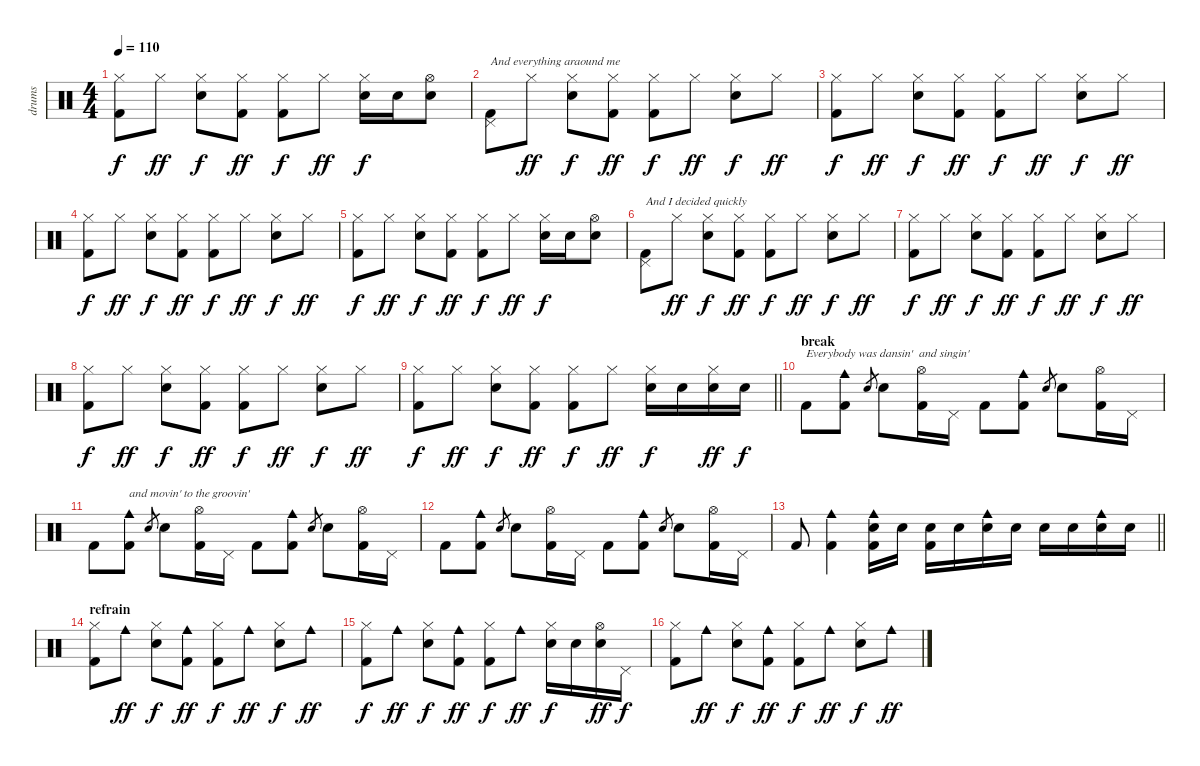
\track ("drums" "drums") {instrument percussion}
\staff {score}
\articulation defaults
\ts (4 4)
\tempo 110
\clef neutral
\ks aminor
("Hi-Hat (closed)" "Kick (hit) 2").8{dy f} "Hi-Hat (closed)".8{dy ff} ("Hi-Hat (closed)" "Snare (hit) 2").8{dy f} ("Hi-Hat (closed)" "Kick (hit) 2").8{dy ff} ("Hi-Hat (closed)" "Kick (hit) 2").8{dy f} "Hi-Hat (closed)".8{dy ff} ("Hi-Hat (closed)" "Snare (hit) 2").16{dy f} "Snare (hit) 2".16 ("Hi-Hat (open)" "Snare (hit) 2").8 |
("Pedal Hi-Hat (hit)" "Kick (hit) 2").8{txt "And everything araound me"} "Hi-Hat (closed)".8{dy ff} ("Hi-Hat (closed)" "Snare (hit) 2").8{dy f} ("Hi-Hat (closed)" "Kick (hit) 2").8{dy ff} ("Hi-Hat (closed)" "Kick (hit) 2").8{dy f} "Hi-Hat (closed)".8{dy ff} ("Hi-Hat (closed)" "Snare (hit) 2").8{dy f} "Hi-Hat (closed)".8{dy ff} |
("Hi-Hat (closed)" "Kick (hit) 2").8{dy f} "Hi-Hat (closed)".8{dy ff} ("Hi-Hat (closed)" "Snare (hit) 2").8{dy f} ("Hi-Hat (closed)" "Kick (hit) 2").8{dy ff} ("Hi-Hat (closed)" "Kick (hit) 2").8{dy f} "Hi-Hat (closed)".8{dy ff} ("Hi-Hat (closed)" "Snare (hit) 2").8{dy f} "Hi-Hat (closed)".8{dy ff} |
("Hi-Hat (closed)" "Kick (hit) 2").8{dy f} "Hi-Hat (closed)".8{dy ff} ("Hi-Hat (closed)" "Snare (hit) 2").8{dy f} ("Hi-Hat (closed)" "Kick (hit) 2").8{dy ff} ("Hi-Hat (closed)" "Kick (hit) 2").8{dy f} "Hi-Hat (closed)".8{dy ff} ("Hi-Hat (closed)" "Snare (hit) 2").8{dy f} "Hi-Hat (closed)".8{dy ff} |
("Hi-Hat (closed)" "Kick (hit) 2").8{dy f} "Hi-Hat (closed)".8{dy ff} ("Hi-Hat (closed)" "Snare (hit) 2").8{dy f} ("Hi-Hat (closed)" "Kick (hit) 2").8{dy ff} ("Hi-Hat (closed)" "Kick (hit) 2").8{dy f} "Hi-Hat (closed)".8{dy ff} ("Hi-Hat (closed)" "Snare (hit) 2").16{dy f} "Snare (hit) 2".16 ("Hi-Hat (open)" "Snare (hit) 2").8 |
("Pedal Hi-Hat (hit)" "Kick (hit) 2").8{txt "And I decided quickly"} "Hi-Hat (closed)".8{dy ff} ("Hi-Hat (closed)" "Snare (hit) 2").8{dy f} ("Hi-Hat (closed)" "Kick (hit) 2").8{dy ff} ("Hi-Hat (closed)" "Kick (hit) 2").8{dy f} "Hi-Hat (closed)".8{dy ff} ("Hi-Hat (closed)" "Snare (hit) 2").8{dy f} "Hi-Hat (closed)".8{dy ff} |
("Hi-Hat (closed)" "Kick (hit) 2").8{dy f} "Hi-Hat (closed)".8{dy ff} ("Hi-Hat (closed)" "Snare (hit) 2").8{dy f} ("Hi-Hat (closed)" "Kick (hit) 2").8{dy ff} ("Hi-Hat (closed)" "Kick (hit) 2").8{dy f} "Hi-Hat (closed)".8{dy ff} ("Hi-Hat (closed)" "Snare (hit) 2").8{dy f} "Hi-Hat (closed)".8{dy ff} |
("Hi-Hat (closed)" "Kick (hit) 2").8{dy f} "Hi-Hat (closed)".8{dy ff} ("Hi-Hat (closed)" "Snare (hit) 2").8{dy f} ("Hi-Hat (closed)" "Kick (hit) 2").8{dy ff} ("Hi-Hat (closed)" "Kick (hit) 2").8{dy f} "Hi-Hat (closed)".8{dy ff} ("Hi-Hat (closed)" "Snare (hit) 2").8{dy f} "Hi-Hat (closed)".8{dy ff} |
\barLineRight lightlight
("Hi-Hat (closed)" "Kick (hit) 2").8{dy f} "Hi-Hat (closed)".8{dy ff} ("Hi-Hat (closed)" "Snare (hit) 2").8{dy f} ("Hi-Hat (closed)" "Kick (hit) 2").8{dy ff} ("Hi-Hat (closed)" "Kick (hit) 2").8{dy f} "Hi-Hat (closed)".8{dy ff} ("Hi-Hat (closed)" "Snare (hit) 2").16{dy f} "Snare (hit) 2".16 ("Hi-Hat (closed)" "Snare (hit) 2").16{dy ff} "Snare (hit) 2".16{dy f} |
\section ("" "break")
"Kick (hit) 2".8{txt "Everybody was dansin'  and singin' "} ("Cowbell medium (hit)" "Kick (hit) 2").8 "Hand Clap (hit)".8{gr} "Hand Clap (hit)".8 ("Hi-Hat (open)" "Kick (hit) 2").16 "Pedal Hi-Hat (hit)".16 "Kick (hit) 2".8 ("Cowbell medium (hit)" "Kick (hit) 2").8 "Hand Clap (hit)".8{gr} "Hand Clap (hit)".8 ("Hi-Hat (open)" "Kick (hit) 2").16 "Pedal Hi-Hat (hit)".16 |
"Kick (hit) 2".8 ("Cowbell medium (hit)" "Kick (hit) 2").8{txt "and movin' to the groovin'"} "Hand Clap (hit)".8{gr} "Hand Clap (hit)".8 ("Hi-Hat (open)" "Kick (hit) 2").16 "Pedal Hi-Hat (hit)".16 "Kick (hit) 2".8 ("Cowbell medium (hit)" "Kick (hit) 2").8 "Hand Clap (hit)".8{gr} "Hand Clap (hit)".8 ("Hi-Hat (open)" "Kick (hit) 2").16 "Pedal Hi-Hat (hit)".16 |
"Kick (hit) 2".8 ("Cowbell medium (hit)" "Kick (hit) 2").8 "Hand Clap (hit)".8{gr} "Hand Clap (hit)".8 ("Hi-Hat (open)" "Kick (hit) 2").16 "Pedal Hi-Hat (hit)".16 "Kick (hit) 2".8 ("Cowbell medium (hit)" "Kick (hit) 2").8 "Hand Clap (hit)".8{gr} "Hand Clap (hit)".8 ("Hi-Hat (open)" "Kick (hit) 2").16 "Pedal Hi-Hat (hit)".16 |
\barLineRight lightlight "Kick (hit) 2".8
("Cowbell medium (hit)" "Kick (hit) 2").4 ("Cowbell medium (hit)" "Snare (hit) 2" "Kick (hit) 2").16 "Snare (hit) 2".16 ("Snare (hit) 2" "Kick (hit) 2").16 "Snare (hit) 2".16 ("Cowbell medium (hit)" "Snare (hit) 2").16 "Snare (hit) 2".16 "Snare (hit) 2".16 "Snare (hit) 2".16 ("Cowbell medium (hit)" "Snare (hit) 2").16 "Snare (hit) 2".16 |
\section ("" "refrain")
("Hi-Hat (closed)" "Kick (hit) 2").8 "Cowbell medium (hit)".8{dy ff} ("Hi-Hat (closed)" "Snare (hit) 2").8{dy f} ("Cowbell medium (hit)" "Kick (hit) 2").8{dy ff} ("Hi-Hat (closed)" "Kick (hit) 2").8{dy f} "Cowbell medium (hit)".8{dy ff} ("Hi-Hat (closed)" "Snare (hit) 2").8{dy f} "Cowbell medium (hit)".8{dy ff} |
("Hi-Hat (closed)" "Kick (hit) 2").8{dy f} "Cowbell medium (hit)".8{dy ff} ("Hi-Hat (closed)" "Snare (hit) 2").8{dy f} ("Cowbell medium (hit)" "Kick (hit) 2").8{dy ff} ("Hi-Hat (closed)" "Kick (hit) 2").8{dy f} "Cowbell medium (hit)".8{dy ff} ("Hi-Hat (closed)" "Snare (hit) 2").16{dy f} "Snare (hit) 2".16 ("Hi-Hat (open)" "Snare (hit) 2").16{dy ff} "Pedal Hi-Hat (hit)".16{dy f} |
("Hi-Hat (closed)" "Kick (hit) 2").8 "Cowbell medium (hit)".8{dy ff} ("Hi-Hat (closed)" "Snare (hit) 2").8{dy f} ("Cowbell medium (hit)" "Kick (hit) 2").8{dy ff} ("Hi-Hat (closed)" "Kick (hit) 2").8{dy f} "Cowbell medium (hit)".8{dy ff} ("Hi-Hat (closed)" "Snare (hit) 2").8{dy f} "Cowbell medium (hit)".8{dy ff}
